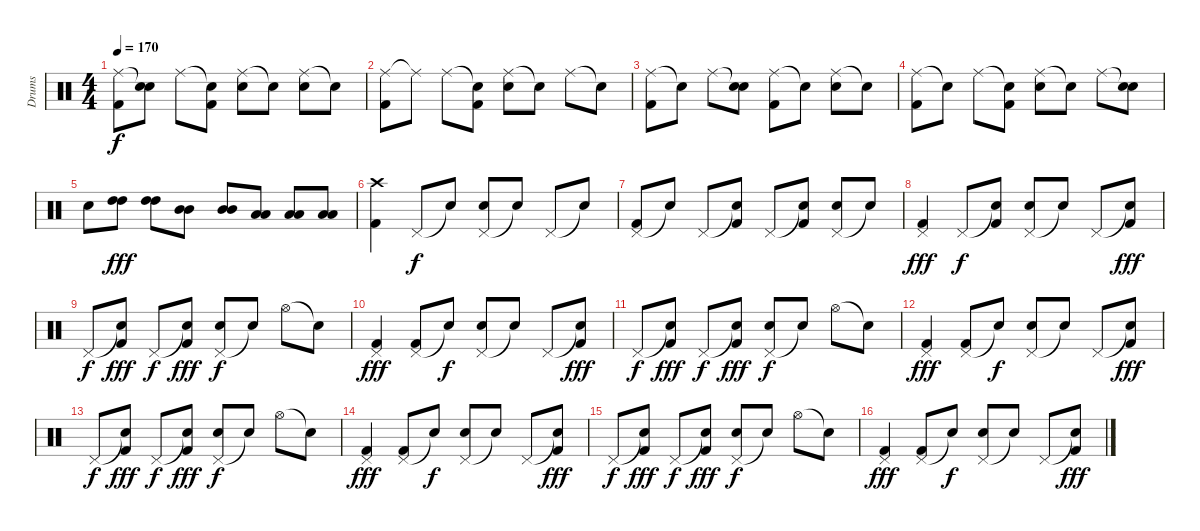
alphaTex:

\track ("Drums" "Drums") {instrument percussion}
\staff {score}
\articulation defaults
\ts (4 4)
\tempo 170
\clef neutral
\ks c
("Ride (middle)" "Kick (hit) 2").8{dy f} ("Snare (hit)"{t} "Electric Snare (hit)").8 "Ride (middle)".8 ("Snare (hit)"{t} "Kick (hit) 2").8 ("Ride (middle)" "Electric Snare (hit)"{tr (40 16)}).8 "Snare (hit)"{t}.8 ("Ride (middle)" "Electric Snare (hit)"{tr (40 16)}).8 "Snare (hit)"{t}.8 |
("Ride (middle)" "Kick (hit) 2").8 "Ride (middle)"{t}.8 "Ride (middle)".8 ("Snare (hit)"{t} "Kick (hit) 2").8 ("Ride (middle)" "Electric Snare (hit)").8 "Snare (hit)"{t}.8 "Ride (middle)".8 "Snare (hit)"{t}.8 |
("Ride (middle)" "Kick (hit) 2").8 "Snare (hit)"{t}.8 "Ride (middle)".8 ("Snare (hit)"{t} "Electric Snare (hit)").8 ("Ride (middle)" "Kick (hit) 2").8 "Snare (hit)"{t}.8 ("Ride (middle)" "Electric Snare (hit)").8 "Snare (hit)"{t}.8 |
("Ride (middle)" "Kick (hit) 2").8 "Snare (hit)"{t}.8 "Ride (middle)".8 ("Snare (hit)"{t} "Kick (hit) 2").8 ("Ride (middle)" "Electric Snare (hit)").8 "Snare (hit)"{t}.8 "Ride (middle)".8 ("Snare (hit)"{t} "Electric Snare (hit)").8 |
"Electric Snare (hit)".8 ("High Tom (hit)" "High Tom (hit)").8{dy fff} ("High Tom (hit)" "High Tom (hit)").8 ("Mid Tom (hit)" "Mid Tom (hit)").8 ("Mid Tom (hit)" "Mid Tom (hit)").8 ("Low Tom (hit)" "Low Tom (hit)").8 ("Low Tom (hit)" "Low Tom (hit)").8 ("Low Tom (hit)" "Low Tom (hit)").8 |
("Crash high (hit)" "Kick (hit) 2").4 "Pedal Hi-Hat (hit)".8{dy f} "Snare (hit)"{t}.8 ("Pedal Hi-Hat (hit)" "Electric Snare (hit)").8 "Snare (hit)"{t}.8 "Pedal Hi-Hat (hit)".8 "Snare (hit)"{t}.8 |
("Pedal Hi-Hat (hit)" "Kick (hit) 2").8 "Snare (hit)"{t}.8 "Pedal Hi-Hat (hit)".8 ("Snare (hit)"{t} "Kick (hit) 2").8 "Pedal Hi-Hat (hit)".8 ("Snare (hit)"{t} "Kick (hit) 2").8 ("Pedal Hi-Hat (hit)" "Electric Snare (hit)").8 "Snare (hit)"{t}.8 |
("Pedal Hi-Hat (hit)" "Kick (hit) 2").4{dy fff} "Pedal Hi-Hat (hit)".8{dy f} ("Snare (hit)"{t} "Kick (hit) 2").8 ("Pedal Hi-Hat (hit)" "Electric Snare (hit)").8 "Snare (hit)"{t}.8 "Pedal Hi-Hat (hit)".8 ("Snare (hit)"{t} "Kick (hit) 2").8{dy fff} |
"Pedal Hi-Hat (hit)".8{dy f} ("Snare (hit)"{t} "Kick (hit) 2").8{dy fff} "Pedal Hi-Hat (hit)".8{dy f} ("Snare (hit)"{t} "Kick (hit) 2").8{dy fff} ("Pedal Hi-Hat (hit)" "Electric Snare (hit)").8{dy f} "Snare (hit)"{t}.8 "Hi-Hat (open)".8 "Snare (hit)"{t}.8 |
("Pedal Hi-Hat (hit)" "Kick (hit) 2").4{dy fff} ("Pedal Hi-Hat (hit)" "Kick (hit) 2").8 "Snare (hit)"{t}.8{dy f} ("Pedal Hi-Hat (hit)" "Electric Snare (hit)").8 "Snare (hit)"{t}.8 "Pedal Hi-Hat (hit)".8 ("Snare (hit)"{t} "Kick (hit) 2").8{dy fff} |
"Pedal Hi-Hat (hit)".8{dy f} ("Snare (hit)"{t} "Kick (hit) 2").8{dy fff} "Pedal Hi-Hat (hit)".8{dy f} ("Snare (hit)"{t} "Kick (hit) 2").8{dy fff} ("Pedal Hi-Hat (hit)" "Electric Snare (hit)").8{dy f} "Snare (hit)"{t}.8 "Hi-Hat (open)".8 "Snare (hit)"{t}.8 |
("Pedal Hi-Hat (hit)" "Kick (hit) 2").4{dy fff} ("Pedal Hi-Hat (hit)" "Kick (hit) 2").8 "Snare (hit)"{t}.8{dy f} ("Pedal Hi-Hat (hit)" "Electric Snare (hit)").8 "Snare (hit)"{t}.8 "Pedal Hi-Hat (hit)".8 ("Snare (hit)"{t} "Kick (hit) 2").8{dy fff} |
"Pedal Hi-Hat (hit)".8{dy f} ("Snare (hit)"{t} "Kick (hit) 2").8{dy fff} "Pedal Hi-Hat (hit)".8{dy f} ("Snare (hit)"{t} "Kick (hit) 2").8{dy fff} ("Pedal Hi-Hat (hit)" "Electric Snare (hit)").8{dy f} "Snare (hit)"{t}.8 "Hi-Hat (open)".8 "Snare (hit)"{t}.8 |
("Pedal Hi-Hat (hit)" "Kick (hit) 2").4{dy fff} ("Pedal Hi-Hat (hit)" "Kick (hit) 2").8 "Snare (hit)"{t}.8{dy f} ("Pedal Hi-Hat (hit)" "Electric Snare (hit)").8 "Snare (hit)"{t}.8 "Pedal Hi-Hat (hit)".8 ("Snare (hit)"{t} "Kick (hit) 2").8{dy fff} |
"Pedal Hi-Hat (hit)".8{dy f} ("Snare (hit)"{t} "Kick (hit) 2").8{dy fff} "Pedal Hi-Hat (hit)".8{dy f} ("Snare (hit)"{t} "Kick (hit) 2").8{dy fff} ("Pedal Hi-Hat (hit)" "Electric Snare (hit)").8{dy f} "Snare (hit)"{t}.8 "Hi-Hat (open)".8 "Snare (hit)"{t}.8 |
("Pedal Hi-Hat (hit)" "Kick (hit) 2").4{dy fff} ("Pedal Hi-Hat (hit)" "Kick (hit) 2").8 "Snare (hit)"{t}.8{dy f} ("Pedal Hi-Hat (hit)" "Electric Snare (hit)").8 "Snare (hit)"{t}.8 "Pedal Hi-Hat (hit)".8 ("Snare (hit)"{t} "Kick (hit) 2").8{dy fff}
